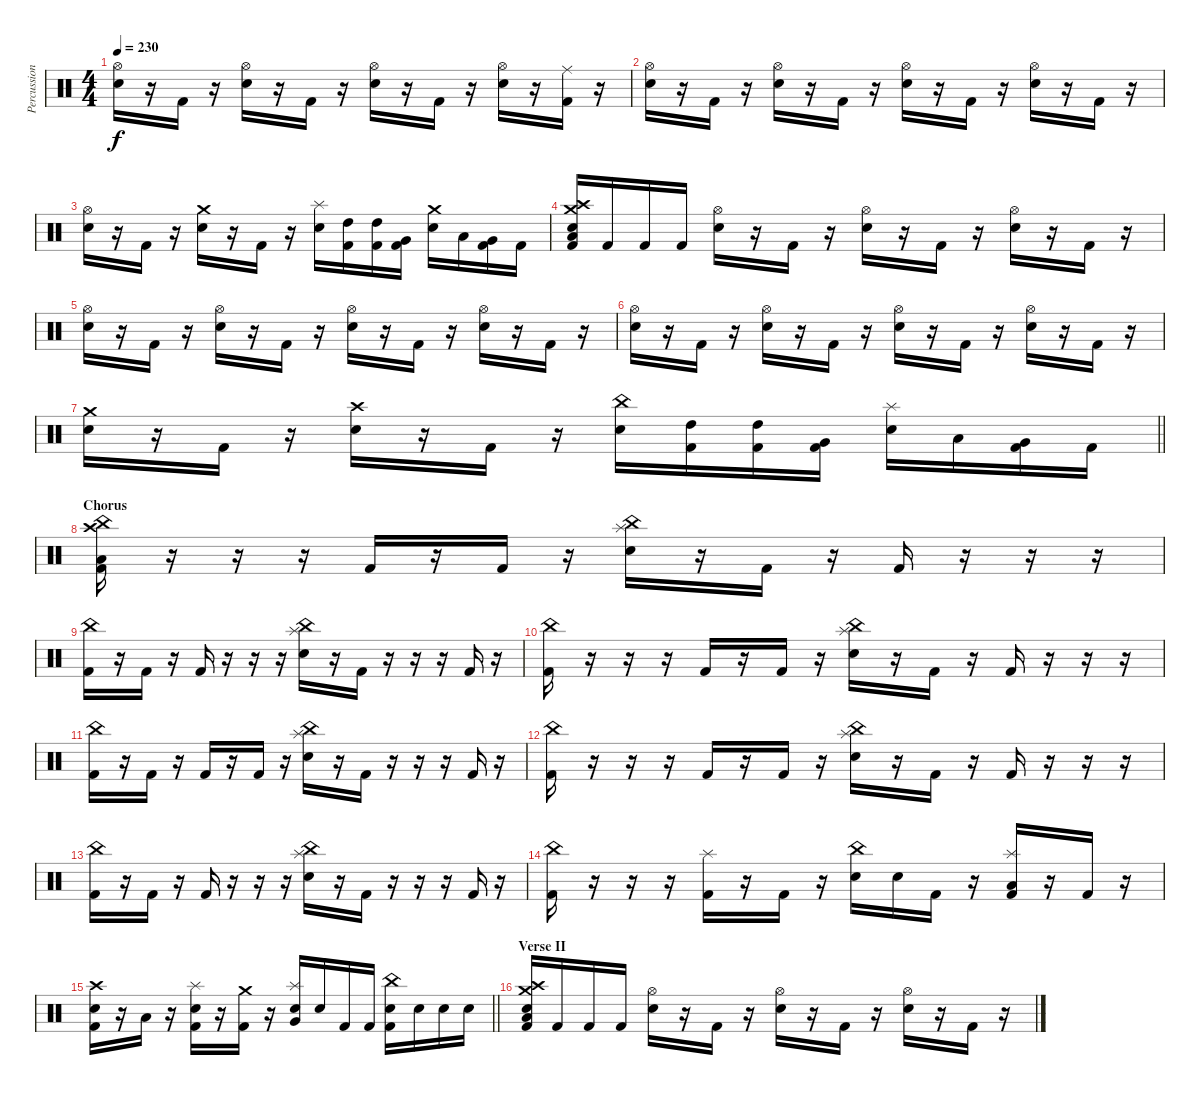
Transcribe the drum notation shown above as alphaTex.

\track ("Percussion" "Percussion") {instrument percussion}
\staff {score}
\articulation defaults
\ts (4 4)
\tempo 230
\clef neutral
\ks c
("Hi-Hat (open)" "Electric Snare (hit)").16{dy f} r.16 "Kick (hit) 2".16 r.16 ("Hi-Hat (open)" "Electric Snare (hit)").16 r.16 "Kick (hit) 2".16 r.16 ("Hi-Hat (open)" "Electric Snare (hit)").16 r.16 "Kick (hit) 2".16 r.16 ("Hi-Hat (open)" "Electric Snare (hit)").16 r.16 ("Ride (middle)" "Kick (hit) 2").16 r.16 |
("Hi-Hat (open)" "Electric Snare (hit)").16 r.16 "Kick (hit) 2".16 r.16 ("Hi-Hat (open)" "Electric Snare (hit)").16 r.16 "Kick (hit) 2".16 r.16 ("Hi-Hat (open)" "Electric Snare (hit)").16 r.16 "Kick (hit) 2".16 r.16 ("Hi-Hat (open)" "Electric Snare (hit)").16 r.16 "Kick (hit) 2".16 r.16 |
("Hi-Hat (open)" "Electric Snare (hit)").16 r.16 "Kick (hit) 2".16 r.16 ("Crash medium (hit)" "Electric Snare (hit)").16 r.16 "Kick (hit) 2".16 r.16 ("Splash (hit)" "Electric Snare (hit)").16 ("High Tom (hit)" "Kick (hit) 2").16 ("High Tom (hit)" "Kick (hit) 2").16 ("Very Low Tom (hit)" "Kick (hit) 2").16 ("Crash medium (hit)" "Electric Snare (hit)").16 "Low Tom (hit)".16 ("Very Low Tom (hit)" "Kick (hit) 2").16 "Kick (hit) 2".16 |
("Crash high (hit)" "Crash medium (hit)" "Electric Snare (hit)" "Low Floor Tom (hit)" "Kick (hit) 2").16 "Kick (hit) 2".16 "Kick (hit) 2".16 "Kick (hit) 2".16 ("Hi-Hat (open)" "Electric Snare (hit)").16 r.16 "Kick (hit) 2".16 r.16 ("Hi-Hat (open)" "Electric Snare (hit)").16 r.16 "Kick (hit) 2".16 r.16 ("Hi-Hat (open)" "Electric Snare (hit)").16 r.16 "Kick (hit) 2".16 r.16 |
("Hi-Hat (open)" "Electric Snare (hit)").16 r.16 "Kick (hit) 2".16 r.16 ("Hi-Hat (open)" "Electric Snare (hit)").16 r.16 "Kick (hit) 2".16 r.16 ("Hi-Hat (open)" "Electric Snare (hit)").16 r.16 "Kick (hit) 2".16 r.16 ("Hi-Hat (open)" "Electric Snare (hit)").16 r.16 "Kick (hit) 2".16 r.16 |
("Hi-Hat (open)" "Electric Snare (hit)").16 r.16 "Kick (hit) 2".16 r.16 ("Hi-Hat (open)" "Electric Snare (hit)").16 r.16 "Kick (hit) 2".16 r.16 ("Hi-Hat (open)" "Electric Snare (hit)").16 r.16 "Kick (hit) 2".16 r.16 ("Hi-Hat (open)" "Electric Snare (hit)").16 r.16 "Kick (hit) 2".16 r.16 |
\barLineRight lightlight
("Crash medium (hit)" "Electric Snare (hit)").16 r.16 "Kick (hit) 2".16 r.16 ("Crash high (hit)" "Electric Snare (hit)").16 r.16 "Kick (hit) 2".16 r.16 ("China (hit)" "Electric Snare (hit)").16 ("High Tom (hit)" "Kick (hit) 2").16 ("High Tom (hit)" "Kick (hit) 2").16 ("Very Low Tom (hit)" "Kick (hit) 2").16 ("Splash (hit)" "Electric Snare (hit)").16 "Low Tom (hit)".16 ("Very Low Tom (hit)" "Kick (hit) 2").16 "Kick (hit) 2".16 |
\section ("" "Chorus")
("China (hit)" "Crash high (hit)" "Low Floor Tom (hit)" "Kick (hit) 2").16 r.16 r.16 r.16 "Kick (hit) 2".16 r.16 "Kick (hit) 2".16 r.16 ("China (hit)" "Splash (hit)" "Electric Snare (hit)").16 r.16 "Kick (hit) 2".16 r.16 "Kick (hit) 2".16 r.16 r.16 r.16 |
("China (hit)" "Kick (hit) 2").16 r.16 "Kick (hit) 2".16 r.16 "Kick (hit) 2".16 r.16 r.16 r.16 ("China (hit)" "Splash (hit)" "Electric Snare (hit)").16 r.16 "Kick (hit) 2".16 r.16 r.16 r.16 "Kick (hit) 2".16 r.16 |
("China (hit)" "Kick (hit) 2").16 r.16 r.16 r.16 "Kick (hit) 2".16 r.16 "Kick (hit) 2".16 r.16 ("China (hit)" "Splash (hit)" "Electric Snare (hit)").16 r.16 "Kick (hit) 2".16 r.16 "Kick (hit) 2".16 r.16 r.16 r.16 |
("China (hit)" "Kick (hit) 2").16 r.16 "Kick (hit) 2".16 r.16 "Kick (hit) 2".16 r.16 "Kick (hit) 2".16 r.16 ("China (hit)" "Splash (hit)" "Electric Snare (hit)").16 r.16 "Kick (hit) 2".16 r.16 r.16 r.16 "Kick (hit) 2".16 r.16 |
("China (hit)" "Kick (hit) 2").16 r.16 r.16 r.16 "Kick (hit) 2".16 r.16 "Kick (hit) 2".16 r.16 ("China (hit)" "Splash (hit)" "Electric Snare (hit)").16 r.16 "Kick (hit) 2".16 r.16 "Kick (hit) 2".16 r.16 r.16 r.16 |
("China (hit)" "Kick (hit) 2").16 r.16 "Kick (hit) 2".16 r.16 "Kick (hit) 2".16 r.16 r.16 r.16 ("China (hit)" "Splash (hit)" "Electric Snare (hit)").16 r.16 "Kick (hit) 2".16 r.16 r.16 r.16 "Kick (hit) 2".16 r.16 |
("China (hit)" "Kick (hit) 2").16 r.16 r.16 r.16 ("Splash (hit)" "Kick (hit) 2").16 r.16 "Kick (hit) 2".16 r.16 ("China (hit)" "Electric Snare (hit)").16 "Electric Snare (hit)".16 "Kick (hit) 2".16 r.16 ("Splash (hit)" "Low Tom (hit)" "Kick (hit) 2").16 r.16 "Kick (hit) 2".16 r.16 |
\barLineRight lightlight
("Crash high (hit)" "Electric Snare (hit)" "Kick (hit) 2").16 r.16 "Low Tom (hit)".16 r.16 ("Splash (hit)" "Electric Snare (hit)" "Kick (hit) 2").16 r.16 ("Crash medium (hit)" "Kick (hit) 2").16 r.16 ("Splash (hit)" "Electric Snare (hit)" "Very Low Tom (hit)").16 "Electric Snare (hit)".16 "Kick (hit) 2".16 "Kick (hit) 2".16 ("China (hit)" "Electric Snare (hit)" "Kick (hit) 2").16 "Electric Snare (hit)".16 "Electric Snare (hit)".16 "Electric Snare (hit)".16 |
\section ("" "Verse II")
("Crash high (hit)" "Crash medium (hit)" "Electric Snare (hit)" "Low Floor Tom (hit)" "Kick (hit) 2").16 "Kick (hit) 2".16 "Kick (hit) 2".16 "Kick (hit) 2".16 ("Hi-Hat (open)" "Electric Snare (hit)").16 r.16 "Kick (hit) 2".16 r.16 ("Hi-Hat (open)" "Electric Snare (hit)").16 r.16 "Kick (hit) 2".16 r.16 ("Hi-Hat (open)" "Electric Snare (hit)").16 r.16 "Kick (hit) 2".16 r.16
